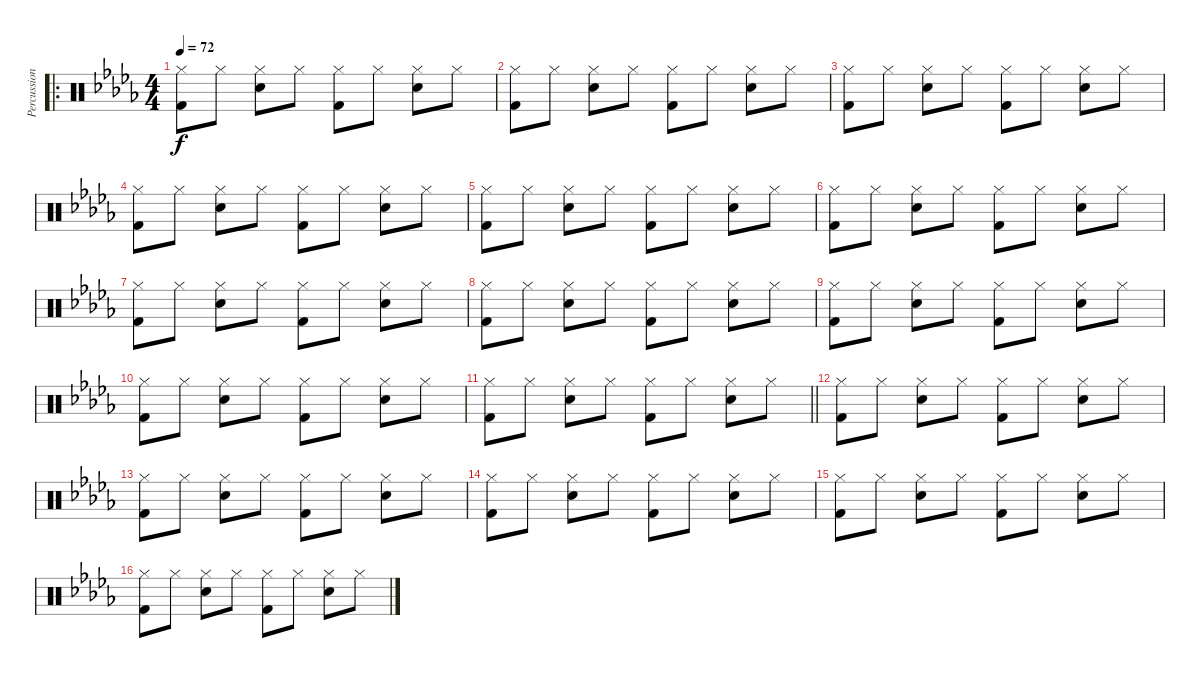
\track ("Percussions" "Percussion") {instrument percussion}
\staff {score}
\articulation defaults
\ro
\ts (4 4)
\tempo 72
\clef neutral
\ks db
("Kick (hit) 2" "Hi-Hat (closed)").8{dy f} "Hi-Hat (closed)".8 ("Snare (hit) 2" "Hi-Hat (closed)").8 "Hi-Hat (closed)".8 ("Kick (hit) 2" "Hi-Hat (closed)").8 "Hi-Hat (closed)".8 ("Snare (hit) 2" "Hi-Hat (closed)").8 "Hi-Hat (closed)".8 |
("Kick (hit) 2" "Hi-Hat (closed)").8 "Hi-Hat (closed)".8 ("Snare (hit) 2" "Hi-Hat (closed)").8 "Hi-Hat (closed)".8 ("Kick (hit) 2" "Hi-Hat (closed)").8 "Hi-Hat (closed)".8 ("Snare (hit) 2" "Hi-Hat (closed)").8 "Hi-Hat (closed)".8 |
("Kick (hit) 2" "Hi-Hat (closed)").8 "Hi-Hat (closed)".8 ("Snare (hit) 2" "Hi-Hat (closed)").8 "Hi-Hat (closed)".8 ("Kick (hit) 2" "Hi-Hat (closed)").8 "Hi-Hat (closed)".8 ("Snare (hit) 2" "Hi-Hat (closed)").8 "Hi-Hat (closed)".8 |
("Kick (hit) 2" "Hi-Hat (closed)").8 "Hi-Hat (closed)".8 ("Snare (hit) 2" "Hi-Hat (closed)").8 "Hi-Hat (closed)".8 ("Kick (hit) 2" "Hi-Hat (closed)").8 "Hi-Hat (closed)".8 ("Snare (hit) 2" "Hi-Hat (closed)").8 "Hi-Hat (closed)".8 |
("Kick (hit) 2" "Hi-Hat (closed)").8 "Hi-Hat (closed)".8 ("Snare (hit) 2" "Hi-Hat (closed)").8 "Hi-Hat (closed)".8 ("Kick (hit) 2" "Hi-Hat (closed)").8 "Hi-Hat (closed)".8 ("Snare (hit) 2" "Hi-Hat (closed)").8 "Hi-Hat (closed)".8 |
("Kick (hit) 2" "Hi-Hat (closed)").8 "Hi-Hat (closed)".8 ("Snare (hit) 2" "Hi-Hat (closed)").8 "Hi-Hat (closed)".8 ("Kick (hit) 2" "Hi-Hat (closed)").8 "Hi-Hat (closed)".8 ("Snare (hit) 2" "Hi-Hat (closed)").8 "Hi-Hat (closed)".8 |
("Kick (hit) 2" "Hi-Hat (closed)").8 "Hi-Hat (closed)".8 ("Snare (hit) 2" "Hi-Hat (closed)").8 "Hi-Hat (closed)".8 ("Kick (hit) 2" "Hi-Hat (closed)").8 "Hi-Hat (closed)".8 ("Snare (hit) 2" "Hi-Hat (closed)").8 "Hi-Hat (closed)".8 |
("Kick (hit) 2" "Hi-Hat (closed)").8 "Hi-Hat (closed)".8 ("Snare (hit) 2" "Hi-Hat (closed)").8 "Hi-Hat (closed)".8 ("Kick (hit) 2" "Hi-Hat (closed)").8 "Hi-Hat (closed)".8 ("Snare (hit) 2" "Hi-Hat (closed)").8 "Hi-Hat (closed)".8 |
("Kick (hit) 2" "Hi-Hat (closed)").8 "Hi-Hat (closed)".8 ("Snare (hit) 2" "Hi-Hat (closed)").8 "Hi-Hat (closed)".8 ("Kick (hit) 2" "Hi-Hat (closed)").8 "Hi-Hat (closed)".8 ("Snare (hit) 2" "Hi-Hat (closed)").8 "Hi-Hat (closed)".8 |
("Kick (hit) 2" "Hi-Hat (closed)").8 "Hi-Hat (closed)".8 ("Snare (hit) 2" "Hi-Hat (closed)").8 "Hi-Hat (closed)".8 ("Kick (hit) 2" "Hi-Hat (closed)").8 "Hi-Hat (closed)".8 ("Snare (hit) 2" "Hi-Hat (closed)").8 "Hi-Hat (closed)".8 |
\barLineRight lightlight
("Kick (hit) 2" "Hi-Hat (closed)").8 "Hi-Hat (closed)".8 ("Snare (hit) 2" "Hi-Hat (closed)").8 "Hi-Hat (closed)".8 ("Kick (hit) 2" "Hi-Hat (closed)").8 "Hi-Hat (closed)".8 ("Snare (hit) 2" "Hi-Hat (closed)").8 "Hi-Hat (closed)".8 |
("Kick (hit) 2" "Hi-Hat (closed)").8 "Hi-Hat (closed)".8 ("Snare (hit) 2" "Hi-Hat (closed)").8 "Hi-Hat (closed)".8 ("Kick (hit) 2" "Hi-Hat (closed)").8 "Hi-Hat (closed)".8 ("Snare (hit) 2" "Hi-Hat (closed)").8 "Hi-Hat (closed)".8 |
("Kick (hit) 2" "Hi-Hat (closed)").8 "Hi-Hat (closed)".8 ("Snare (hit) 2" "Hi-Hat (closed)").8 "Hi-Hat (closed)".8 ("Kick (hit) 2" "Hi-Hat (closed)").8 "Hi-Hat (closed)".8 ("Snare (hit) 2" "Hi-Hat (closed)").8 "Hi-Hat (closed)".8 |
("Kick (hit) 2" "Hi-Hat (closed)").8 "Hi-Hat (closed)".8 ("Snare (hit) 2" "Hi-Hat (closed)").8 "Hi-Hat (closed)".8 ("Kick (hit) 2" "Hi-Hat (closed)").8 "Hi-Hat (closed)".8 ("Snare (hit) 2" "Hi-Hat (closed)").8 "Hi-Hat (closed)".8 |
("Kick (hit) 2" "Hi-Hat (closed)").8 "Hi-Hat (closed)".8 ("Snare (hit) 2" "Hi-Hat (closed)").8 "Hi-Hat (closed)".8 ("Kick (hit) 2" "Hi-Hat (closed)").8 "Hi-Hat (closed)".8 ("Snare (hit) 2" "Hi-Hat (closed)").8 "Hi-Hat (closed)".8 |
("Kick (hit) 2" "Hi-Hat (closed)").8 "Hi-Hat (closed)".8 ("Snare (hit) 2" "Hi-Hat (closed)").8 "Hi-Hat (closed)".8 ("Kick (hit) 2" "Hi-Hat (closed)").8 "Hi-Hat (closed)".8 ("Snare (hit) 2" "Hi-Hat (closed)").8 "Hi-Hat (closed)".8
